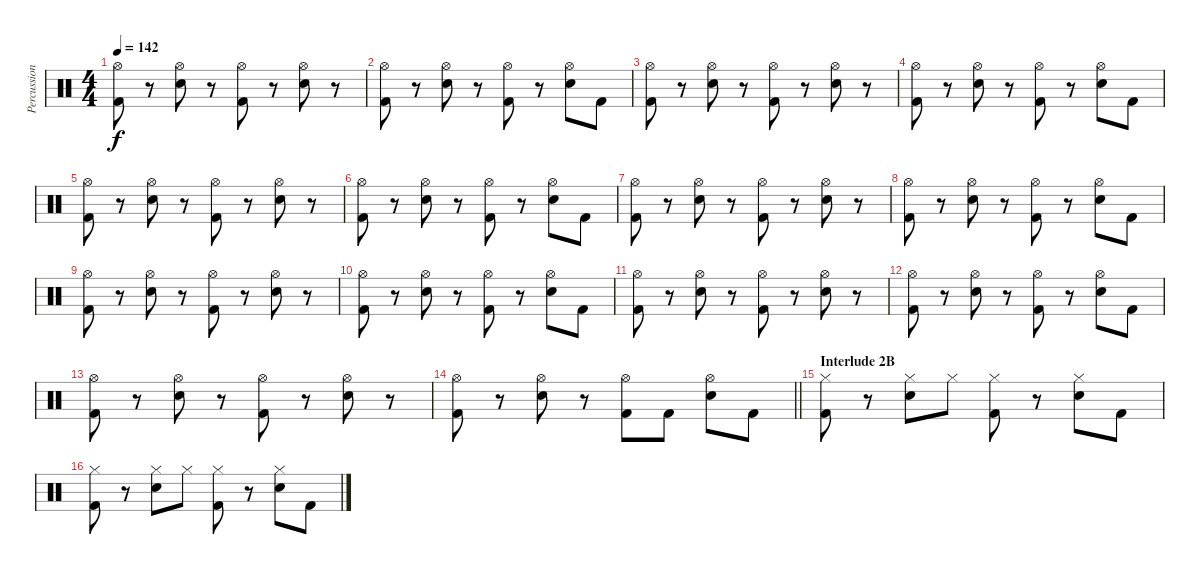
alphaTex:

\track ("Percussion" "Percussion") {instrument percussion}
\staff {score}
\articulation defaults
\ts (4 4)
\tempo 142
\clef neutral
\ks c
("Hi-Hat (open)" "Kick (hit) 2").8{dy f} r.8 ("Hi-Hat (open)" "Electric Snare (hit)").8 r.8 ("Hi-Hat (open)" "Kick (hit) 2").8 r.8 ("Hi-Hat (open)" "Electric Snare (hit)").8 r.8 |
("Hi-Hat (open)" "Kick (hit) 2").8 r.8 ("Hi-Hat (open)" "Electric Snare (hit)").8 r.8 ("Hi-Hat (open)" "Kick (hit) 2").8 r.8 ("Hi-Hat (open)" "Electric Snare (hit)").8 "Kick (hit) 2".8 |
("Hi-Hat (open)" "Kick (hit) 2").8 r.8 ("Hi-Hat (open)" "Electric Snare (hit)").8 r.8 ("Hi-Hat (open)" "Kick (hit) 2").8 r.8 ("Hi-Hat (open)" "Electric Snare (hit)").8 r.8 |
("Hi-Hat (open)" "Kick (hit) 2").8 r.8 ("Hi-Hat (open)" "Electric Snare (hit)").8 r.8 ("Hi-Hat (open)" "Kick (hit) 2").8 r.8 ("Hi-Hat (open)" "Electric Snare (hit)").8 "Kick (hit) 2".8 |
("Hi-Hat (open)" "Kick (hit) 2").8 r.8 ("Hi-Hat (open)" "Electric Snare (hit)").8 r.8 ("Hi-Hat (open)" "Kick (hit) 2").8 r.8 ("Hi-Hat (open)" "Electric Snare (hit)").8 r.8 |
("Hi-Hat (open)" "Kick (hit) 2").8 r.8 ("Hi-Hat (open)" "Electric Snare (hit)").8 r.8 ("Hi-Hat (open)" "Kick (hit) 2").8 r.8 ("Hi-Hat (open)" "Electric Snare (hit)").8 "Kick (hit) 2".8 |
("Hi-Hat (open)" "Kick (hit) 2").8 r.8 ("Hi-Hat (open)" "Electric Snare (hit)").8 r.8 ("Hi-Hat (open)" "Kick (hit) 2").8 r.8 ("Hi-Hat (open)" "Electric Snare (hit)").8 r.8 |
("Hi-Hat (open)" "Kick (hit) 2").8 r.8 ("Hi-Hat (open)" "Electric Snare (hit)").8 r.8 ("Hi-Hat (open)" "Kick (hit) 2").8 r.8 ("Hi-Hat (open)" "Electric Snare (hit)").8 "Kick (hit) 2".8 |
("Hi-Hat (open)" "Kick (hit) 2").8 r.8 ("Hi-Hat (open)" "Electric Snare (hit)").8 r.8 ("Hi-Hat (open)" "Kick (hit) 2").8 r.8 ("Hi-Hat (open)" "Electric Snare (hit)").8 r.8 |
("Hi-Hat (open)" "Kick (hit) 2").8 r.8 ("Hi-Hat (open)" "Electric Snare (hit)").8 r.8 ("Hi-Hat (open)" "Kick (hit) 2").8 r.8 ("Hi-Hat (open)" "Electric Snare (hit)").8 "Kick (hit) 2".8 |
("Hi-Hat (open)" "Kick (hit) 2").8 r.8 ("Hi-Hat (open)" "Electric Snare (hit)").8 r.8 ("Hi-Hat (open)" "Kick (hit) 2").8 r.8 ("Hi-Hat (open)" "Electric Snare (hit)").8 r.8 |
("Hi-Hat (open)" "Kick (hit) 2").8 r.8 ("Hi-Hat (open)" "Electric Snare (hit)").8 r.8 ("Hi-Hat (open)" "Kick (hit) 2").8 r.8 ("Hi-Hat (open)" "Electric Snare (hit)").8 "Kick (hit) 2".8 |
("Hi-Hat (open)" "Kick (hit) 2").8 r.8 ("Hi-Hat (open)" "Electric Snare (hit)").8 r.8 ("Hi-Hat (open)" "Kick (hit) 2").8 r.8 ("Hi-Hat (open)" "Electric Snare (hit)").8 r.8 |
\barLineRight lightlight
("Hi-Hat (open)" "Kick (hit) 2").8 r.8 ("Hi-Hat (open)" "Electric Snare (hit)").8 r.8 ("Hi-Hat (open)" "Kick (hit) 2").8 "Kick (hit) 2".8 ("Hi-Hat (open)" "Electric Snare (hit)").8 "Kick (hit) 2".8 |
\section ("" "Interlude 2B")
("Hi-Hat (closed)" "Kick (hit) 2").8 r.8 ("Hi-Hat (closed)" "Electric Snare (hit)").8 "Hi-Hat (closed)".8 ("Hi-Hat (closed)" "Kick (hit) 2").8 r.8 ("Hi-Hat (closed)" "Electric Snare (hit)").8 "Kick (hit) 2".8 |
("Hi-Hat (closed)" "Kick (hit) 2").8 r.8 ("Hi-Hat (closed)" "Electric Snare (hit)").8 "Hi-Hat (closed)".8 ("Hi-Hat (closed)" "Kick (hit) 2").8 r.8 ("Hi-Hat (closed)" "Electric Snare (hit)").8 "Kick (hit) 2".8
